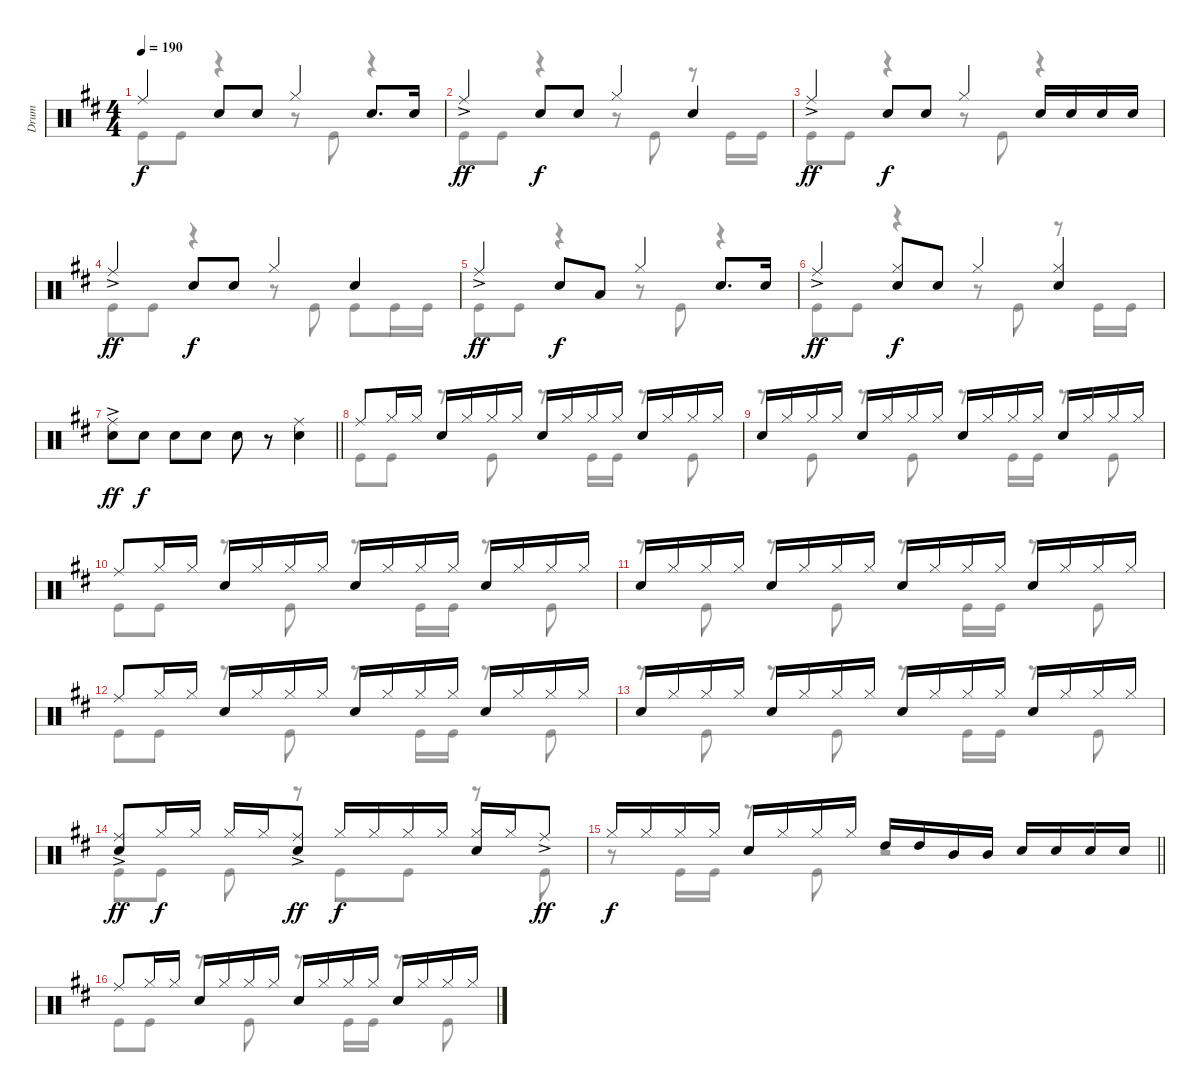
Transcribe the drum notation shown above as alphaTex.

\track ("Drum" "Drum") {instrument percussion}
\staff {score}
\articulation defaults
\voice
\ts (4 4)
\tempo 190
\clef neutral
\ks d "Ride (middle)".4{dy f} "Snare (hit) 2".8 "Snare (hit) 2".8 "Hi-Hat (closed)".4 "Snare (hit) 2".8{d} "Snare (hit) 2".16
|
"Ride (middle)"{ac}.4{dy ff} "Snare (hit) 2".8{dy f} "Snare (hit) 2".8 "Hi-Hat (closed)".4 "Snare (hit) 2".4 |
"Ride (middle)"{ac}.4{dy ff} "Snare (hit) 2".8{dy f} "Snare (hit) 2".8 "Hi-Hat (closed)".4 "Snare (hit) 2".16 "Snare (hit) 2".16 "Snare (hit) 2".16 "Snare (hit) 2".16 |
"Ride (middle)"{ac}.4{dy ff} "Snare (hit) 2".8{dy f} "Snare (hit) 2".8 "Hi-Hat (closed)".4 "Snare (hit) 2".4 |
"Ride (middle)"{ac}.4{dy ff} "Snare (hit) 2".8{dy f} "Low Tom (hit)".8 "Hi-Hat (closed)".4 "Snare (hit) 2".8{d} "Snare (hit) 2".16 |
"Ride (middle)"{ac}.4{dy ff} ("Snare (hit) 2" "Hi-Hat (closed)").8{dy f} "Snare (hit) 2".8 "Hi-Hat (closed)".4 ("Snare (hit) 2" "Hi-Hat (closed)").4 |
\barLineRight lightlight
("Ride (middle)"{ac} "Snare (hit) 2").8{dy ff} "Snare (hit) 2".8{dy f} "Snare (hit) 2".8 "Snare (hit) 2".8 "Snare (hit) 2".8 r.8 ("Snare (hit) 2" "Ride (middle)").4 |
"Ride (middle)".8 "Hi-Hat (closed)".16 "Hi-Hat (closed)".16 "Snare (hit) 2".16 "Hi-Hat (closed)".16 "Hi-Hat (closed)".16 "Hi-Hat (closed)".16 "Snare (hit) 2".16 "Hi-Hat (closed)".16 "Hi-Hat (closed)".16 "Hi-Hat (closed)".16 "Snare (hit) 2".16 "Hi-Hat (closed)".16 "Hi-Hat (closed)".16 "Hi-Hat (closed)".16 |
"Snare (hit) 2".16 "Hi-Hat (closed)".16 "Hi-Hat (closed)".16 "Hi-Hat (closed)".16 "Snare (hit) 2".16 "Hi-Hat (closed)".16 "Hi-Hat (closed)".16 "Hi-Hat (closed)".16 "Snare (hit) 2".16 "Hi-Hat (closed)".16 "Hi-Hat (closed)".16 "Hi-Hat (closed)".16 "Snare (hit) 2".16 "Hi-Hat (closed)".16 "Hi-Hat (closed)".16 "Hi-Hat (closed)".16 |
"Ride (middle)".8 "Hi-Hat (closed)".16 "Hi-Hat (closed)".16 "Snare (hit) 2".16 "Hi-Hat (closed)".16 "Hi-Hat (closed)".16 "Hi-Hat (closed)".16 "Snare (hit) 2".16 "Hi-Hat (closed)".16 "Hi-Hat (closed)".16 "Hi-Hat (closed)".16 "Snare (hit) 2".16 "Hi-Hat (closed)".16 "Hi-Hat (closed)".16 "Hi-Hat (closed)".16 |
"Snare (hit) 2".16 "Hi-Hat (closed)".16 "Hi-Hat (closed)".16 "Hi-Hat (closed)".16 "Snare (hit) 2".16 "Hi-Hat (closed)".16 "Hi-Hat (closed)".16 "Hi-Hat (closed)".16 "Snare (hit) 2".16 "Hi-Hat (closed)".16 "Hi-Hat (closed)".16 "Hi-Hat (closed)".16 "Snare (hit) 2".16 "Hi-Hat (closed)".16 "Hi-Hat (closed)".16 "Hi-Hat (closed)".16 |
"Ride (middle)".8 "Hi-Hat (closed)".16 "Hi-Hat (closed)".16 "Snare (hit) 2".16 "Hi-Hat (closed)".16 "Hi-Hat (closed)".16 "Hi-Hat (closed)".16 "Snare (hit) 2".16 "Hi-Hat (closed)".16 "Hi-Hat (closed)".16 "Hi-Hat (closed)".16 "Snare (hit) 2".16 "Hi-Hat (closed)".16 "Hi-Hat (closed)".16 "Hi-Hat (closed)".16 |
"Snare (hit) 2".16 "Hi-Hat (closed)".16 "Hi-Hat (closed)".16 "Hi-Hat (closed)".16 "Snare (hit) 2".16 "Hi-Hat (closed)".16 "Hi-Hat (closed)".16 "Hi-Hat (closed)".16 "Snare (hit) 2".16 "Hi-Hat (closed)".16 "Hi-Hat (closed)".16 "Hi-Hat (closed)".16 "Snare (hit) 2".16 "Hi-Hat (closed)".16 "Hi-Hat (closed)".16 "Hi-Hat (closed)".16 |
("Ride (middle)"{ac} "Snare (hit) 2").8{dy ff} "Hi-Hat (closed)".16{dy f} "Hi-Hat (closed)".16 "Hi-Hat (closed)".16 "Hi-Hat (closed)".16 ("Ride (middle)"{ac} "Snare (hit) 2").8{dy ff} "Hi-Hat (closed)".16{dy f} "Hi-Hat (closed)".16 "Hi-Hat (closed)".16 "Hi-Hat (closed)".16 ("Hi-Hat (closed)" "Snare (hit) 2").16 "Hi-Hat (closed)".16 "Ride (middle)"{ac}.8{dy ff} |
\barLineRight lightlight "Hi-Hat (closed)".16{dy f} "Hi-Hat (closed)".16 "Hi-Hat (closed)".16 "Hi-Hat (closed)".16 "Snare (hit) 2".16 "Hi-Hat (closed)".16 "Hi-Hat (closed)".16 "Hi-Hat (closed)".16 "High Tom (hit)".16 "High Tom (hit)".16 "Mid Tom (hit)".16 "Mid Tom (hit)".16 "Snare (hit) 2".16 "Snare (hit) 2".16 "Snare (hit) 2".16 "Snare (hit) 2".16
|
"Ride (middle)".8 "Hi-Hat (closed)".16 "Hi-Hat (closed)".16 "Snare (hit) 2".16 "Hi-Hat (closed)".16 "Hi-Hat (closed)".16 "Hi-Hat (closed)".16 "Snare (hit) 2".16 "Hi-Hat (closed)".16 "Hi-Hat (closed)".16 "Hi-Hat (closed)".16 "Snare (hit) 2".16 "Hi-Hat (closed)".16 "Hi-Hat (closed)".16 "Hi-Hat (closed)".16
\voice
\clef neutral
\ottava regular
\simile none
\ks d "Kick (hit)".8{dy f} "Kick (hit)".8
r.4 r.8 "Kick (hit)".8 r.4 |
"Kick (hit)".8 "Kick (hit)".8 r.4 r.8 "Kick (hit)".8 r.8 "Kick (hit)".16 "Kick (hit)".16 |
"Kick (hit)".8 "Kick (hit)".8 r.4 r.8 "Kick (hit)".8 r.4 |
"Kick (hit)".8 "Kick (hit)".8 r.4 r.8 "Kick (hit)".8 "Kick (hit)".8 "Kick (hit)".16 "Kick (hit)".16 |
"Kick (hit)".8 "Kick (hit)".8 r.4 r.8 "Kick (hit)".8 r.4 |
"Kick (hit)".8 "Kick (hit)".8 r.4 r.8 "Kick (hit)".8 r.8 "Kick (hit)".16 "Kick (hit)".16 |
\barLineRight lightlight
|
"Kick (hit)".8 "Kick (hit)".8 r.8 "Kick (hit)".8 r.8 "Kick (hit)".16 "Kick (hit)".16 r.8 "Kick (hit)".8 |
r.8 "Kick (hit)".8 r.8 "Kick (hit)".8 r.8 "Kick (hit)".16 "Kick (hit)".16 r.8 "Kick (hit)".8 |
"Kick (hit)".8 "Kick (hit)".8 r.8 "Kick (hit)".8 r.8 "Kick (hit)".16 "Kick (hit)".16 r.8 "Kick (hit)".8 |
r.8 "Kick (hit)".8 r.8 "Kick (hit)".8 r.8 "Kick (hit)".16 "Kick (hit)".16 r.8 "Kick (hit)".8 |
"Kick (hit)".8 "Kick (hit)".8 r.8 "Kick (hit)".8 r.8 "Kick (hit)".16 "Kick (hit)".16 r.8 "Kick (hit)".8 |
r.8 "Kick (hit)".8 r.8 "Kick (hit)".8 r.8 "Kick (hit)".16 "Kick (hit)".16 r.8 "Kick (hit)".8 |
"Kick (hit)".8 "Kick (hit)".8 "Kick (hit)".8 r.8 "Kick (hit)".8 "Kick (hit)".8 r.8 "Kick (hit)".8 |
\barLineRight lightlight
r.8 "Kick (hit)".16 "Kick (hit)".16 r.8 "Kick (hit)".8 r.2 |
"Kick (hit)".8 "Kick (hit)".8 r.8 "Kick (hit)".8 r.8 "Kick (hit)".16 "Kick (hit)".16 r.8 "Kick (hit)".8
